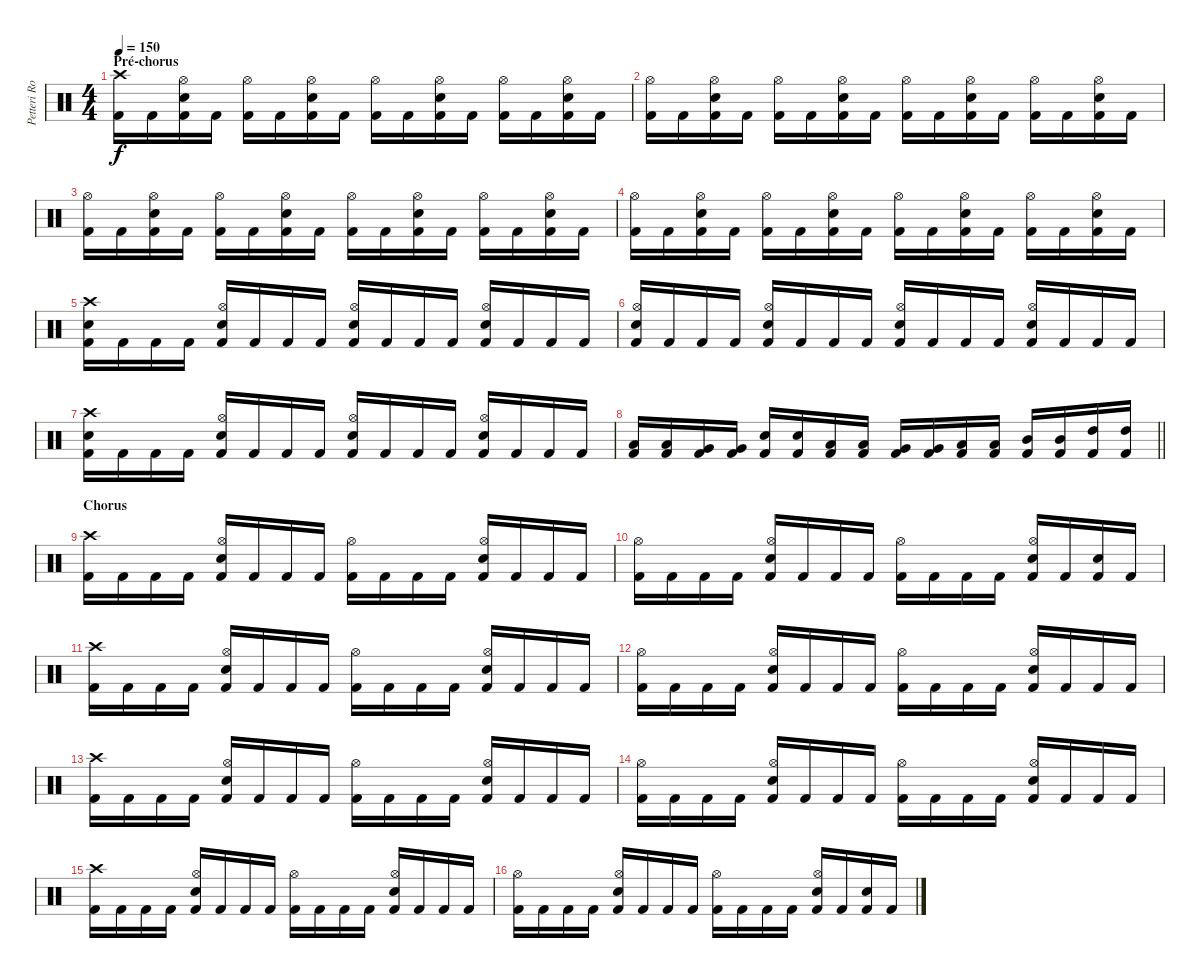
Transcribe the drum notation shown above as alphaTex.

\track ("Petteri Rosenbom" "Petteri Ro") {instrument percussion}
\staff {score}
\articulation defaults
\ts (4 4)
\section ("" "Pré-chorus")
\tempo 150
\clef neutral
\ks c
("Crash high (hit)" "Kick (hit) 2").16{dy f} "Kick (hit) 2".16 ("Hi-Hat (open)" "Electric Snare (hit)" "Kick (hit) 2").16 "Kick (hit) 2".16 ("Hi-Hat (open)" "Kick (hit) 2").16 "Kick (hit) 2".16 ("Hi-Hat (open)" "Electric Snare (hit)" "Kick (hit) 2").16 "Kick (hit) 2".16 ("Hi-Hat (open)" "Kick (hit) 2").16 "Kick (hit) 2".16 ("Hi-Hat (open)" "Electric Snare (hit)" "Kick (hit) 2").16 "Kick (hit) 2".16 ("Hi-Hat (open)" "Kick (hit) 2").16 "Kick (hit) 2".16 ("Hi-Hat (open)" "Electric Snare (hit)" "Kick (hit) 2").16 "Kick (hit) 2".16 |
("Hi-Hat (open)" "Kick (hit) 2").16 "Kick (hit) 2".16 ("Hi-Hat (open)" "Electric Snare (hit)" "Kick (hit) 2").16 "Kick (hit) 2".16 ("Hi-Hat (open)" "Kick (hit) 2").16 "Kick (hit) 2".16 ("Hi-Hat (open)" "Electric Snare (hit)" "Kick (hit) 2").16 "Kick (hit) 2".16 ("Hi-Hat (open)" "Kick (hit) 2").16 "Kick (hit) 2".16 ("Hi-Hat (open)" "Electric Snare (hit)" "Kick (hit) 2").16 "Kick (hit) 2".16 ("Hi-Hat (open)" "Kick (hit) 2").16 "Kick (hit) 2".16 ("Hi-Hat (open)" "Electric Snare (hit)" "Kick (hit) 2").16 "Kick (hit) 2".16 |
("Hi-Hat (open)" "Kick (hit) 2").16 "Kick (hit) 2".16 ("Hi-Hat (open)" "Electric Snare (hit)" "Kick (hit) 2").16 "Kick (hit) 2".16 ("Hi-Hat (open)" "Kick (hit) 2").16 "Kick (hit) 2".16 ("Hi-Hat (open)" "Electric Snare (hit)" "Kick (hit) 2").16 "Kick (hit) 2".16 ("Hi-Hat (open)" "Kick (hit) 2").16 "Kick (hit) 2".16 ("Hi-Hat (open)" "Electric Snare (hit)" "Kick (hit) 2").16 "Kick (hit) 2".16 ("Hi-Hat (open)" "Kick (hit) 2").16 "Kick (hit) 2".16 ("Hi-Hat (open)" "Electric Snare (hit)" "Kick (hit) 2").16 "Kick (hit) 2".16 |
("Hi-Hat (open)" "Kick (hit) 2").16 "Kick (hit) 2".16 ("Hi-Hat (open)" "Electric Snare (hit)" "Kick (hit) 2").16 "Kick (hit) 2".16 ("Hi-Hat (open)" "Kick (hit) 2").16 "Kick (hit) 2".16 ("Hi-Hat (open)" "Electric Snare (hit)" "Kick (hit) 2").16 "Kick (hit) 2".16 ("Hi-Hat (open)" "Kick (hit) 2").16 "Kick (hit) 2".16 ("Hi-Hat (open)" "Electric Snare (hit)" "Kick (hit) 2").16 "Kick (hit) 2".16 ("Hi-Hat (open)" "Kick (hit) 2").16 "Kick (hit) 2".16 ("Hi-Hat (open)" "Electric Snare (hit)" "Kick (hit) 2").16 "Kick (hit) 2".16 |
("Crash high (hit)" "Electric Snare (hit)" "Kick (hit) 2").16 "Kick (hit) 2".16 "Kick (hit) 2".16 "Kick (hit) 2".16 ("Hi-Hat (open)" "Electric Snare (hit)" "Kick (hit) 2").16 "Kick (hit) 2".16 "Kick (hit) 2".16 "Kick (hit) 2".16 ("Hi-Hat (open)" "Electric Snare (hit)" "Kick (hit) 2").16 "Kick (hit) 2".16 "Kick (hit) 2".16 "Kick (hit) 2".16 ("Hi-Hat (open)" "Electric Snare (hit)" "Kick (hit) 2").16 "Kick (hit) 2".16 "Kick (hit) 2".16 "Kick (hit) 2".16 |
("Hi-Hat (open)" "Electric Snare (hit)" "Kick (hit) 2").16 "Kick (hit) 2".16 "Kick (hit) 2".16 "Kick (hit) 2".16 ("Hi-Hat (open)" "Electric Snare (hit)" "Kick (hit) 2").16 "Kick (hit) 2".16 "Kick (hit) 2".16 "Kick (hit) 2".16 ("Hi-Hat (open)" "Electric Snare (hit)" "Kick (hit) 2").16 "Kick (hit) 2".16 "Kick (hit) 2".16 "Kick (hit) 2".16 ("Hi-Hat (open)" "Electric Snare (hit)" "Kick (hit) 2").16 "Kick (hit) 2".16 "Kick (hit) 2".16 "Kick (hit) 2".16 |
("Crash high (hit)" "Electric Snare (hit)" "Kick (hit) 2").16 "Kick (hit) 2".16 "Kick (hit) 2".16 "Kick (hit) 2".16 ("Hi-Hat (open)" "Electric Snare (hit)" "Kick (hit) 2").16 "Kick (hit) 2".16 "Kick (hit) 2".16 "Kick (hit) 2".16 ("Hi-Hat (open)" "Electric Snare (hit)" "Kick (hit) 2").16 "Kick (hit) 2".16 "Kick (hit) 2".16 "Kick (hit) 2".16 ("Hi-Hat (open)" "Electric Snare (hit)" "Kick (hit) 2").16 "Kick (hit) 2".16 "Kick (hit) 2".16 "Kick (hit) 2".16 |
\barLineRight lightlight
("Low Floor Tom (hit)" "Kick (hit) 2").16 ("Low Floor Tom (hit)" "Kick (hit) 2").16 ("Very Low Tom (hit)" "Kick (hit) 2").16 ("Very Low Tom (hit)" "Kick (hit) 2").16 ("Electric Snare (hit)" "Kick (hit) 2").16 ("Electric Snare (hit)" "Kick (hit) 2").16 ("Low Floor Tom (hit)" "Kick (hit) 2").16 ("Low Floor Tom (hit)" "Kick (hit) 2").16 ("Very Low Tom (hit)" "Kick (hit) 2").16 ("Very Low Tom (hit)" "Kick (hit) 2").16 ("Low Tom (hit)" "Kick (hit) 2").16 ("Low Tom (hit)" "Kick (hit) 2").16 ("Mid Tom (hit)" "Kick (hit) 2").16 ("Mid Tom (hit)" "Kick (hit) 2").16 ("High Tom (hit)" "Kick (hit) 2").16 ("High Tom (hit)" "Kick (hit) 2").16 |
\section ("" "Chorus")
("Crash high (hit)" "Kick (hit) 2").16 "Kick (hit) 2".16 "Kick (hit) 2".16 "Kick (hit) 2".16 ("Hi-Hat (open)" "Electric Snare (hit)" "Kick (hit) 2").16 "Kick (hit) 2".16 "Kick (hit) 2".16 "Kick (hit) 2".16 ("Hi-Hat (open)" "Kick (hit) 2").16 "Kick (hit) 2".16 "Kick (hit) 2".16 "Kick (hit) 2".16 ("Hi-Hat (open)" "Electric Snare (hit)" "Kick (hit) 2").16 "Kick (hit) 2".16 "Kick (hit) 2".16 "Kick (hit) 2".16 |
("Hi-Hat (open)" "Kick (hit) 2").16 "Kick (hit) 2".16 "Kick (hit) 2".16 "Kick (hit) 2".16 ("Hi-Hat (open)" "Electric Snare (hit)" "Kick (hit) 2").16 "Kick (hit) 2".16 "Kick (hit) 2".16 "Kick (hit) 2".16 ("Hi-Hat (open)" "Kick (hit) 2").16 "Kick (hit) 2".16 "Kick (hit) 2".16 "Kick (hit) 2".16 ("Hi-Hat (open)" "Electric Snare (hit)" "Kick (hit) 2").16 "Kick (hit) 2".16 ("Electric Snare (hit)" "Kick (hit) 2").16 "Kick (hit) 2".16 |
("Crash high (hit)" "Kick (hit) 2").16 "Kick (hit) 2".16 "Kick (hit) 2".16 "Kick (hit) 2".16 ("Hi-Hat (open)" "Electric Snare (hit)" "Kick (hit) 2").16 "Kick (hit) 2".16 "Kick (hit) 2".16 "Kick (hit) 2".16 ("Hi-Hat (open)" "Kick (hit) 2").16 "Kick (hit) 2".16 "Kick (hit) 2".16 "Kick (hit) 2".16 ("Hi-Hat (open)" "Electric Snare (hit)" "Kick (hit) 2").16 "Kick (hit) 2".16 "Kick (hit) 2".16 "Kick (hit) 2".16 |
("Hi-Hat (open)" "Kick (hit) 2").16 "Kick (hit) 2".16 "Kick (hit) 2".16 "Kick (hit) 2".16 ("Hi-Hat (open)" "Electric Snare (hit)" "Kick (hit) 2").16 "Kick (hit) 2".16 "Kick (hit) 2".16 "Kick (hit) 2".16 ("Hi-Hat (open)" "Kick (hit) 2").16 "Kick (hit) 2".16 "Kick (hit) 2".16 "Kick (hit) 2".16 ("Hi-Hat (open)" "Electric Snare (hit)" "Kick (hit) 2").16 "Kick (hit) 2".16 "Kick (hit) 2".16 "Kick (hit) 2".16 |
("Crash high (hit)" "Kick (hit) 2").16 "Kick (hit) 2".16 "Kick (hit) 2".16 "Kick (hit) 2".16 ("Hi-Hat (open)" "Electric Snare (hit)" "Kick (hit) 2").16 "Kick (hit) 2".16 "Kick (hit) 2".16 "Kick (hit) 2".16 ("Hi-Hat (open)" "Kick (hit) 2").16 "Kick (hit) 2".16 "Kick (hit) 2".16 "Kick (hit) 2".16 ("Hi-Hat (open)" "Electric Snare (hit)" "Kick (hit) 2").16 "Kick (hit) 2".16 "Kick (hit) 2".16 "Kick (hit) 2".16 |
("Hi-Hat (open)" "Kick (hit) 2").16 "Kick (hit) 2".16 "Kick (hit) 2".16 "Kick (hit) 2".16 ("Hi-Hat (open)" "Electric Snare (hit)" "Kick (hit) 2").16 "Kick (hit) 2".16 "Kick (hit) 2".16 "Kick (hit) 2".16 ("Hi-Hat (open)" "Kick (hit) 2").16 "Kick (hit) 2".16 "Kick (hit) 2".16 "Kick (hit) 2".16 ("Hi-Hat (open)" "Electric Snare (hit)" "Kick (hit) 2").16 "Kick (hit) 2".16 "Kick (hit) 2".16 "Kick (hit) 2".16 |
("Crash high (hit)" "Kick (hit) 2").16 "Kick (hit) 2".16 "Kick (hit) 2".16 "Kick (hit) 2".16 ("Hi-Hat (open)" "Electric Snare (hit)" "Kick (hit) 2").16 "Kick (hit) 2".16 "Kick (hit) 2".16 "Kick (hit) 2".16 ("Hi-Hat (open)" "Kick (hit) 2").16 "Kick (hit) 2".16 "Kick (hit) 2".16 "Kick (hit) 2".16 ("Hi-Hat (open)" "Electric Snare (hit)" "Kick (hit) 2").16 "Kick (hit) 2".16 "Kick (hit) 2".16 "Kick (hit) 2".16 |
("Hi-Hat (open)" "Kick (hit) 2").16 "Kick (hit) 2".16 "Kick (hit) 2".16 "Kick (hit) 2".16 ("Hi-Hat (open)" "Electric Snare (hit)" "Kick (hit) 2").16 "Kick (hit) 2".16 "Kick (hit) 2".16 "Kick (hit) 2".16 ("Hi-Hat (open)" "Kick (hit) 2").16 "Kick (hit) 2".16 "Kick (hit) 2".16 "Kick (hit) 2".16 ("Hi-Hat (open)" "Electric Snare (hit)" "Kick (hit) 2").16 "Kick (hit) 2".16 ("Electric Snare (hit)" "Kick (hit) 2").16 "Kick (hit) 2".16
